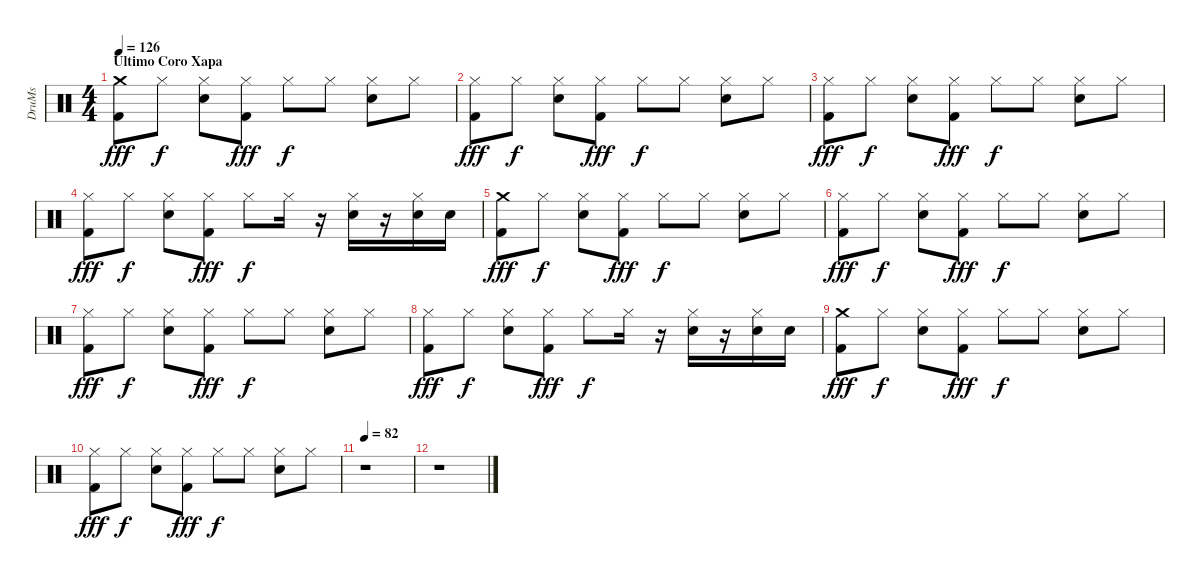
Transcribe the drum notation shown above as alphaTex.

\track ("DruMs" "DruMs") {instrument percussion}
\staff {score}
\articulation defaults
\ts (4 4)
\section ("" "Ultimo Coro Xapa")
\tempo 126
\clef neutral
\ks c
("Crash medium (hit)" "Kick (hit) 2").8{dy fff} "Hi-Hat (closed)".8{dy f} ("Hi-Hat (closed)" "Snare (hit) 2").8 ("Hi-Hat (closed)" "Kick (hit) 2").8{dy fff} "Hi-Hat (closed)".8{dy f} "Hi-Hat (closed)".8 ("Hi-Hat (closed)" "Snare (hit) 2").8 "Hi-Hat (closed)".8 |
("Hi-Hat (closed)" "Kick (hit) 2").8{dy fff} "Hi-Hat (closed)".8{dy f} ("Hi-Hat (closed)" "Snare (hit) 2").8 ("Hi-Hat (closed)" "Kick (hit) 2").8{dy fff} "Hi-Hat (closed)".8{dy f} "Hi-Hat (closed)".8 ("Hi-Hat (closed)" "Snare (hit) 2").8 "Hi-Hat (closed)".8 |
("Hi-Hat (closed)" "Kick (hit) 2").8{dy fff} "Hi-Hat (closed)".8{dy f} ("Hi-Hat (closed)" "Snare (hit) 2").8 ("Hi-Hat (closed)" "Kick (hit) 2").8{dy fff} "Hi-Hat (closed)".8{dy f} "Hi-Hat (closed)".8 ("Hi-Hat (closed)" "Snare (hit) 2").8 "Hi-Hat (closed)".8 |
("Hi-Hat (closed)" "Kick (hit) 2").8{dy fff} "Hi-Hat (closed)".8{dy f} ("Hi-Hat (closed)" "Snare (hit) 2").8 ("Hi-Hat (closed)" "Kick (hit) 2").8{dy fff} "Hi-Hat (closed)".8{dy f} "Hi-Hat (closed)".16 r.16 ("Hi-Hat (closed)" "Snare (hit) 2").16 r.16 ("Hi-Hat (closed)" "Snare (hit) 2").16 "Snare (hit) 2".16 |
("Crash medium (hit)" "Kick (hit) 2").8{dy fff} "Hi-Hat (closed)".8{dy f} ("Hi-Hat (closed)" "Snare (hit) 2").8 ("Hi-Hat (closed)" "Kick (hit) 2").8{dy fff} "Hi-Hat (closed)".8{dy f} "Hi-Hat (closed)".8 ("Hi-Hat (closed)" "Snare (hit) 2").8 "Hi-Hat (closed)".8 |
("Hi-Hat (closed)" "Kick (hit) 2").8{dy fff} "Hi-Hat (closed)".8{dy f} ("Hi-Hat (closed)" "Snare (hit) 2").8 ("Hi-Hat (closed)" "Kick (hit) 2").8{dy fff} "Hi-Hat (closed)".8{dy f} "Hi-Hat (closed)".8 ("Hi-Hat (closed)" "Snare (hit) 2").8 "Hi-Hat (closed)".8 |
("Hi-Hat (closed)" "Kick (hit) 2").8{dy fff} "Hi-Hat (closed)".8{dy f} ("Hi-Hat (closed)" "Snare (hit) 2").8 ("Hi-Hat (closed)" "Kick (hit) 2").8{dy fff} "Hi-Hat (closed)".8{dy f} "Hi-Hat (closed)".8 ("Hi-Hat (closed)" "Snare (hit) 2").8 "Hi-Hat (closed)".8 |
("Hi-Hat (closed)" "Kick (hit) 2").8{dy fff} "Hi-Hat (closed)".8{dy f} ("Hi-Hat (closed)" "Snare (hit) 2").8 ("Hi-Hat (closed)" "Kick (hit) 2").8{dy fff} "Hi-Hat (closed)".8{dy f} "Hi-Hat (closed)".16 r.16 ("Hi-Hat (closed)" "Snare (hit) 2").16 r.16 ("Hi-Hat (closed)" "Snare (hit) 2").16 "Snare (hit) 2".16 |
("Crash medium (hit)" "Kick (hit) 2").8{dy fff} "Hi-Hat (closed)".8{dy f} ("Hi-Hat (closed)" "Snare (hit) 2").8 ("Hi-Hat (closed)" "Kick (hit) 2").8{dy fff} "Hi-Hat (closed)".8{dy f} "Hi-Hat (closed)".8 ("Hi-Hat (closed)" "Snare (hit) 2").8 "Hi-Hat (closed)".8 |
("Hi-Hat (closed)" "Kick (hit) 2").8{dy fff} "Hi-Hat (closed)".8{dy f} ("Hi-Hat (closed)" "Snare (hit) 2").8 ("Hi-Hat (closed)" "Kick (hit) 2").8{dy fff} "Hi-Hat (closed)".8{dy f} "Hi-Hat (closed)".8 ("Hi-Hat (closed)" "Snare (hit) 2").8 "Hi-Hat (closed)".8 |
\tempo 82
r.1 |
r.1
